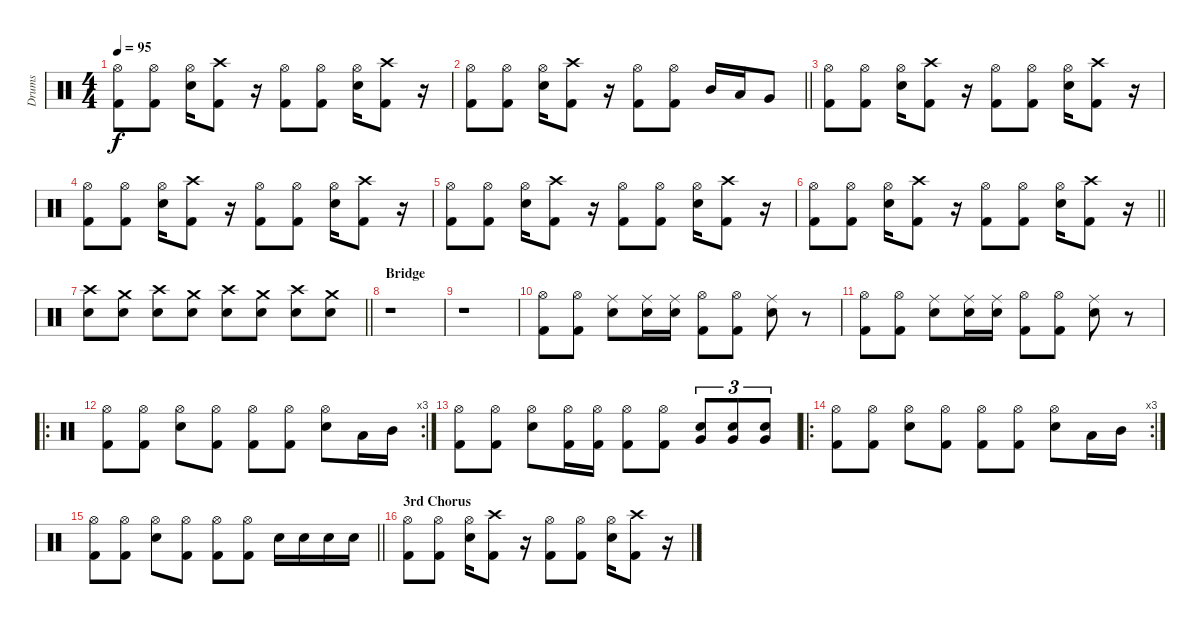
\track ("Drums" "Drums") {instrument percussion}
\staff {score}
\articulation defaults
\ts (4 4)
\tempo 95
\clef neutral
\ks c
("Hi-Hat (open)" "Kick (hit) 2").8{dy f} ("Hi-Hat (open)" "Kick (hit) 2").8 ("Hi-Hat (open)" "Electric Snare (hit)").16 ("Crash high (hit)" "Kick (hit) 2").8 r.16 ("Hi-Hat (open)" "Kick (hit) 2").8 ("Hi-Hat (open)" "Kick (hit) 2").8 ("Hi-Hat (open)" "Electric Snare (hit)").16 ("Crash high (hit)" "Kick (hit) 2").8 r.16 |
\barLineRight lightlight
("Hi-Hat (open)" "Kick (hit) 2").8 ("Hi-Hat (open)" "Kick (hit) 2").8 ("Hi-Hat (open)" "Electric Snare (hit)").16 ("Crash high (hit)" "Kick (hit) 2").8 r.16 ("Hi-Hat (open)" "Kick (hit) 2").8 ("Hi-Hat (open)" "Kick (hit) 2").8 "Mid Tom (hit)".16 "Low Tom (hit)".16 "Very Low Tom (hit)".8 |
("Hi-Hat (open)" "Kick (hit) 2").8 ("Hi-Hat (open)" "Kick (hit) 2").8 ("Hi-Hat (open)" "Electric Snare (hit)").16 ("Crash high (hit)" "Kick (hit) 2").8 r.16 ("Hi-Hat (open)" "Kick (hit) 2").8 ("Hi-Hat (open)" "Kick (hit) 2").8 ("Hi-Hat (open)" "Electric Snare (hit)").16 ("Crash high (hit)" "Kick (hit) 2").8 r.16 |
("Hi-Hat (open)" "Kick (hit) 2").8 ("Hi-Hat (open)" "Kick (hit) 2").8 ("Hi-Hat (open)" "Electric Snare (hit)").16 ("Crash high (hit)" "Kick (hit) 2").8 r.16 ("Hi-Hat (open)" "Kick (hit) 2").8 ("Hi-Hat (open)" "Kick (hit) 2").8 ("Hi-Hat (open)" "Electric Snare (hit)").16 ("Crash high (hit)" "Kick (hit) 2").8 r.16 |
("Hi-Hat (open)" "Kick (hit) 2").8 ("Hi-Hat (open)" "Kick (hit) 2").8 ("Hi-Hat (open)" "Electric Snare (hit)").16 ("Crash high (hit)" "Kick (hit) 2").8 r.16 ("Hi-Hat (open)" "Kick (hit) 2").8 ("Hi-Hat (open)" "Kick (hit) 2").8 ("Hi-Hat (open)" "Electric Snare (hit)").16 ("Crash high (hit)" "Kick (hit) 2").8 r.16 |
\barLineRight lightlight
("Hi-Hat (open)" "Kick (hit) 2").8 ("Hi-Hat (open)" "Kick (hit) 2").8 ("Hi-Hat (open)" "Electric Snare (hit)").16 ("Crash high (hit)" "Kick (hit) 2").8 r.16 ("Hi-Hat (open)" "Kick (hit) 2").8 ("Hi-Hat (open)" "Kick (hit) 2").8 ("Hi-Hat (open)" "Electric Snare (hit)").16 ("Crash high (hit)" "Kick (hit) 2").8 r.16 |
\barLineRight lightlight
("Crash high (hit)" "Electric Snare (hit)").8 ("Crash medium (hit)" "Electric Snare (hit)").8 ("Crash high (hit)" "Electric Snare (hit)").8 ("Crash medium (hit)" "Electric Snare (hit)").8 ("Crash high (hit)" "Electric Snare (hit)").8 ("Crash medium (hit)" "Electric Snare (hit)").8 ("Crash high (hit)" "Electric Snare (hit)").8 ("Crash medium (hit)" "Electric Snare (hit)").8 |
\section ("" "Bridge")
r.1 |
r.1 |
("Kick (hit) 2" "Hi-Hat (open)").8 ("Kick (hit) 2" "Hi-Hat (open)").8 ("Ride (middle)" "Electric Snare (hit)").8 ("Ride (middle)" "Electric Snare (hit)").16 ("Ride (middle)" "Electric Snare (hit)").16 ("Kick (hit) 2" "Hi-Hat (open)").8 ("Kick (hit) 2" "Hi-Hat (open)").8 ("Ride (middle)" "Electric Snare (hit)").8 r.8 |
("Kick (hit) 2" "Hi-Hat (open)").8 ("Kick (hit) 2" "Hi-Hat (open)").8 ("Ride (middle)" "Electric Snare (hit)").8 ("Ride (middle)" "Electric Snare (hit)").16 ("Ride (middle)" "Electric Snare (hit)").16 ("Kick (hit) 2" "Hi-Hat (open)").8 ("Kick (hit) 2" "Hi-Hat (open)").8 ("Ride (middle)" "Electric Snare (hit)").8 r.8 |
\ro
\rc 3
("Hi-Hat (open)" "Kick (hit) 2").8 ("Hi-Hat (open)" "Kick (hit) 2").8 ("Hi-Hat (open)" "Electric Snare (hit)").8 ("Hi-Hat (open)" "Kick (hit) 2").8 ("Hi-Hat (open)" "Kick (hit) 2").8 ("Hi-Hat (open)" "Kick (hit) 2").8 ("Hi-Hat (open)" "Electric Snare (hit)").8 "Low Tom (hit)".16 "Mid Tom (hit)".16 |
("Hi-Hat (open)" "Kick (hit) 2").8 ("Hi-Hat (open)" "Kick (hit) 2").8 ("Hi-Hat (open)" "Electric Snare (hit)").8 ("Hi-Hat (open)" "Kick (hit) 2").16 ("Hi-Hat (open)" "Kick (hit) 2").16 ("Hi-Hat (open)" "Kick (hit) 2").8 ("Hi-Hat (open)" "Kick (hit) 2").8 ("Very Low Tom (hit)" "Electric Snare (hit)").8{tu (3 2)} ("Very Low Tom (hit)" "Electric Snare (hit)").8{tu (3 2)} ("Very Low Tom (hit)" "Electric Snare (hit)").8{tu (3 2)} |
\ro
\rc 3
("Hi-Hat (open)" "Kick (hit) 2").8 ("Hi-Hat (open)" "Kick (hit) 2").8 ("Hi-Hat (open)" "Electric Snare (hit)").8 ("Hi-Hat (open)" "Kick (hit) 2").8 ("Hi-Hat (open)" "Kick (hit) 2").8 ("Hi-Hat (open)" "Kick (hit) 2").8 ("Hi-Hat (open)" "Electric Snare (hit)").8 "Low Tom (hit)".16 "Mid Tom (hit)".16 |
\barLineRight lightlight
("Hi-Hat (open)" "Kick (hit) 2").8 ("Hi-Hat (open)" "Kick (hit) 2").8 ("Hi-Hat (open)" "Electric Snare (hit)").8 ("Hi-Hat (open)" "Kick (hit) 2").8 ("Hi-Hat (open)" "Kick (hit) 2").8 ("Hi-Hat (open)" "Kick (hit) 2").8 "Electric Snare (hit)".16 "Electric Snare (hit)".16 "Electric Snare (hit)".16 "Electric Snare (hit)".16 |
\section ("" "3rd Chorus")
("Hi-Hat (open)" "Kick (hit) 2").8 ("Hi-Hat (open)" "Kick (hit) 2").8 ("Hi-Hat (open)" "Electric Snare (hit)").16 ("Crash high (hit)" "Kick (hit) 2").8 r.16 ("Hi-Hat (open)" "Kick (hit) 2").8 ("Hi-Hat (open)" "Kick (hit) 2").8 ("Hi-Hat (open)" "Electric Snare (hit)").16 ("Crash high (hit)" "Kick (hit) 2").8 r.16
